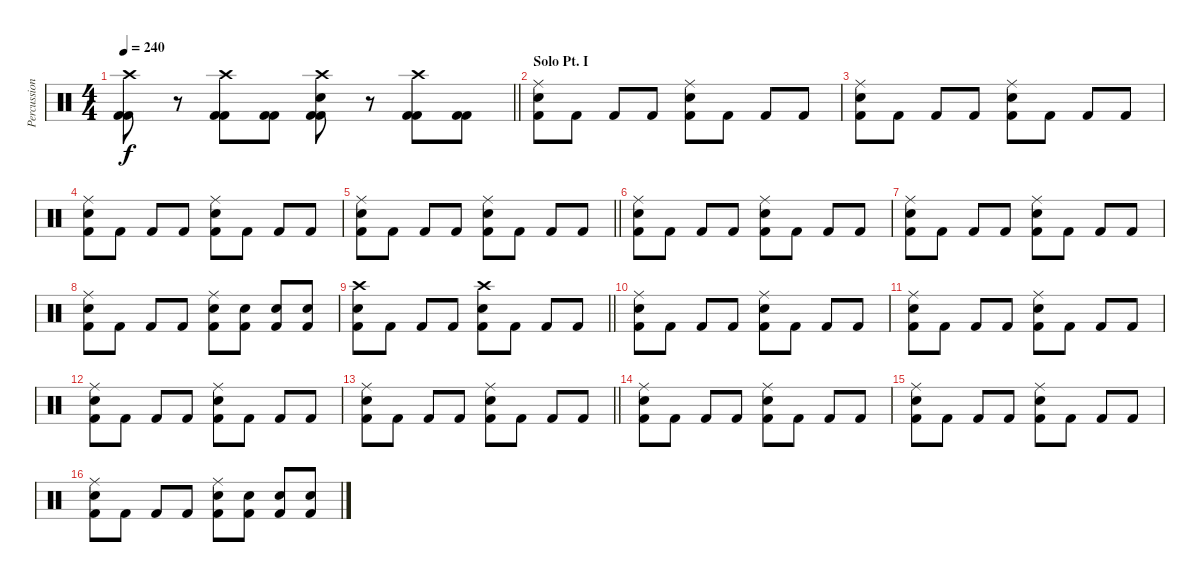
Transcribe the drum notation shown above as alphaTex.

\track ("Percussion" "Percussion") {instrument percussion}
\staff {score}
\articulation defaults
\ts (4 4)
\tempo 240
\clef neutral
\barLineRight lightlight
\ks c
("Crash high (hit)" "Kick (hit) 2" "Kick (hit) 2").8{dy f} r.8 ("Crash high (hit)" "Kick (hit) 2" "Kick (hit) 2").8 ("Kick (hit) 2" "Kick (hit) 2").8 ("Crash high (hit)" "Electric Snare (hit)" "Kick (hit) 2" "Kick (hit) 2").8 r.8 ("Crash high (hit)" "Kick (hit) 2" "Kick (hit) 2").8 ("Kick (hit) 2" "Kick (hit) 2").8 |
\section ("" "Solo Pt. I")
("Ride (middle)" "Electric Snare (hit)" "Kick (hit) 2").8 "Kick (hit) 2".8 "Kick (hit) 2".8 "Kick (hit) 2".8 ("Ride (middle)" "Electric Snare (hit)" "Kick (hit) 2").8 "Kick (hit) 2".8 "Kick (hit) 2".8 "Kick (hit) 2".8 |
("Ride (middle)" "Electric Snare (hit)" "Kick (hit) 2").8 "Kick (hit) 2".8 "Kick (hit) 2".8 "Kick (hit) 2".8 ("Ride (middle)" "Electric Snare (hit)" "Kick (hit) 2").8 "Kick (hit) 2".8 "Kick (hit) 2".8 "Kick (hit) 2".8 |
("Ride (middle)" "Electric Snare (hit)" "Kick (hit) 2").8 "Kick (hit) 2".8 "Kick (hit) 2".8 "Kick (hit) 2".8 ("Ride (middle)" "Electric Snare (hit)" "Kick (hit) 2").8 "Kick (hit) 2".8 "Kick (hit) 2".8 "Kick (hit) 2".8 |
\barLineRight lightlight
("Ride (middle)" "Electric Snare (hit)" "Kick (hit) 2").8 "Kick (hit) 2".8 "Kick (hit) 2".8 "Kick (hit) 2".8 ("Ride (middle)" "Electric Snare (hit)" "Kick (hit) 2").8 "Kick (hit) 2".8 "Kick (hit) 2".8 "Kick (hit) 2".8 |
("Ride (middle)" "Electric Snare (hit)" "Kick (hit) 2").8 "Kick (hit) 2".8 "Kick (hit) 2".8 "Kick (hit) 2".8 ("Ride (middle)" "Electric Snare (hit)" "Kick (hit) 2").8 "Kick (hit) 2".8 "Kick (hit) 2".8 "Kick (hit) 2".8 |
("Ride (middle)" "Electric Snare (hit)" "Kick (hit) 2").8 "Kick (hit) 2".8 "Kick (hit) 2".8 "Kick (hit) 2".8 ("Ride (middle)" "Electric Snare (hit)" "Kick (hit) 2").8 "Kick (hit) 2".8 "Kick (hit) 2".8 "Kick (hit) 2".8 |
("Ride (middle)" "Electric Snare (hit)" "Kick (hit) 2").8 "Kick (hit) 2".8 "Kick (hit) 2".8 "Kick (hit) 2".8 ("Ride (middle)" "Electric Snare (hit)" "Kick (hit) 2").8 ("Electric Snare (hit)" "Kick (hit) 2").8 ("Electric Snare (hit)" "Kick (hit) 2").8 ("Electric Snare (hit)" "Kick (hit) 2").8 |
\barLineRight lightlight
("Crash high (hit)" "Electric Snare (hit)" "Kick (hit) 2").8 "Kick (hit) 2".8 "Kick (hit) 2".8 "Kick (hit) 2".8 ("Crash high (hit)" "Electric Snare (hit)" "Kick (hit) 2").8 "Kick (hit) 2".8 "Kick (hit) 2".8 "Kick (hit) 2".8 |
("Ride (middle)" "Electric Snare (hit)" "Kick (hit) 2").8 "Kick (hit) 2".8 "Kick (hit) 2".8 "Kick (hit) 2".8 ("Ride (middle)" "Electric Snare (hit)" "Kick (hit) 2").8 "Kick (hit) 2".8 "Kick (hit) 2".8 "Kick (hit) 2".8 |
("Ride (middle)" "Electric Snare (hit)" "Kick (hit) 2").8 "Kick (hit) 2".8 "Kick (hit) 2".8 "Kick (hit) 2".8 ("Ride (middle)" "Electric Snare (hit)" "Kick (hit) 2").8 "Kick (hit) 2".8 "Kick (hit) 2".8 "Kick (hit) 2".8 |
("Ride (middle)" "Electric Snare (hit)" "Kick (hit) 2").8 "Kick (hit) 2".8 "Kick (hit) 2".8 "Kick (hit) 2".8 ("Ride (middle)" "Electric Snare (hit)" "Kick (hit) 2").8 "Kick (hit) 2".8 "Kick (hit) 2".8 "Kick (hit) 2".8 |
\barLineRight lightlight
("Ride (middle)" "Electric Snare (hit)" "Kick (hit) 2").8 "Kick (hit) 2".8 "Kick (hit) 2".8 "Kick (hit) 2".8 ("Ride (middle)" "Electric Snare (hit)" "Kick (hit) 2").8 "Kick (hit) 2".8 "Kick (hit) 2".8 "Kick (hit) 2".8 |
("Ride (middle)" "Electric Snare (hit)" "Kick (hit) 2").8 "Kick (hit) 2".8 "Kick (hit) 2".8 "Kick (hit) 2".8 ("Ride (middle)" "Electric Snare (hit)" "Kick (hit) 2").8 "Kick (hit) 2".8 "Kick (hit) 2".8 "Kick (hit) 2".8 |
("Ride (middle)" "Electric Snare (hit)" "Kick (hit) 2").8 "Kick (hit) 2".8 "Kick (hit) 2".8 "Kick (hit) 2".8 ("Ride (middle)" "Electric Snare (hit)" "Kick (hit) 2").8 "Kick (hit) 2".8 "Kick (hit) 2".8 "Kick (hit) 2".8 |
("Ride (middle)" "Electric Snare (hit)" "Kick (hit) 2").8 "Kick (hit) 2".8 "Kick (hit) 2".8 "Kick (hit) 2".8 ("Ride (middle)" "Electric Snare (hit)" "Kick (hit) 2").8 ("Electric Snare (hit)" "Kick (hit) 2").8 ("Electric Snare (hit)" "Kick (hit) 2").8 ("Electric Snare (hit)" "Kick (hit) 2").8
